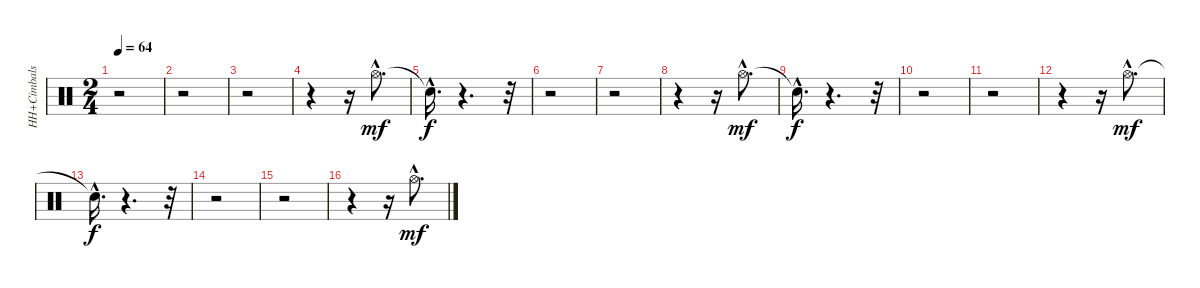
\track ("HH+Cimbals" "HH+Cimbals") {instrument percussion}
\staff {score}
\articulation defaults
\ts (2 4)
\tempo 64
\clef neutral
\ks c
r.2{dy mf} |
r.2 |
r.2 |
r.4 r.16 "Hi-Hat (open)"{hac}.8{d} |
"Snare (hit)"{hac t}.16{d dy f} r.4{d} r.32 |
r.2 |
r.2 |
r.4 r.16 "Hi-Hat (open)"{hac}.8{d dy mf} |
"Snare (hit)"{hac t}.16{d dy f} r.4{d} r.32 |
r.2 |
r.2 |
r.4 r.16 "Hi-Hat (open)"{hac}.8{d dy mf} |
"Snare (hit)"{hac t}.16{d dy f} r.4{d} r.32 |
r.2 |
r.2 |
r.4 r.16 "Hi-Hat (open)"{hac}.8{d dy mf}
